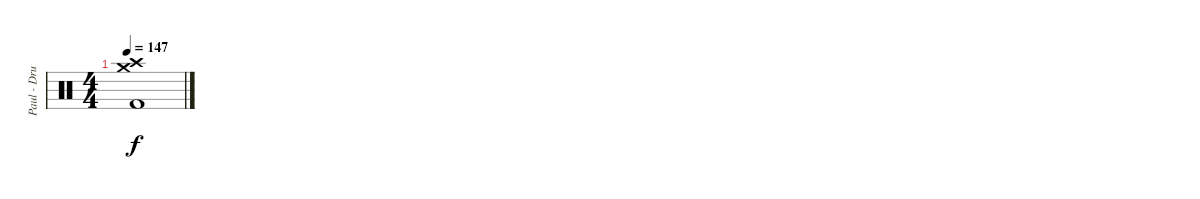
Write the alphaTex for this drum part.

\track ("Paul - Drums" "Paul - Dru") {instrument percussion}
\staff {score}
\articulation defaults
\ts (4 4)
\tempo 147
\clef neutral
\ks c
("Crash high (hit)" "Crash medium (hit)" "Kick (hit) 2").1{dy f volume 0}
